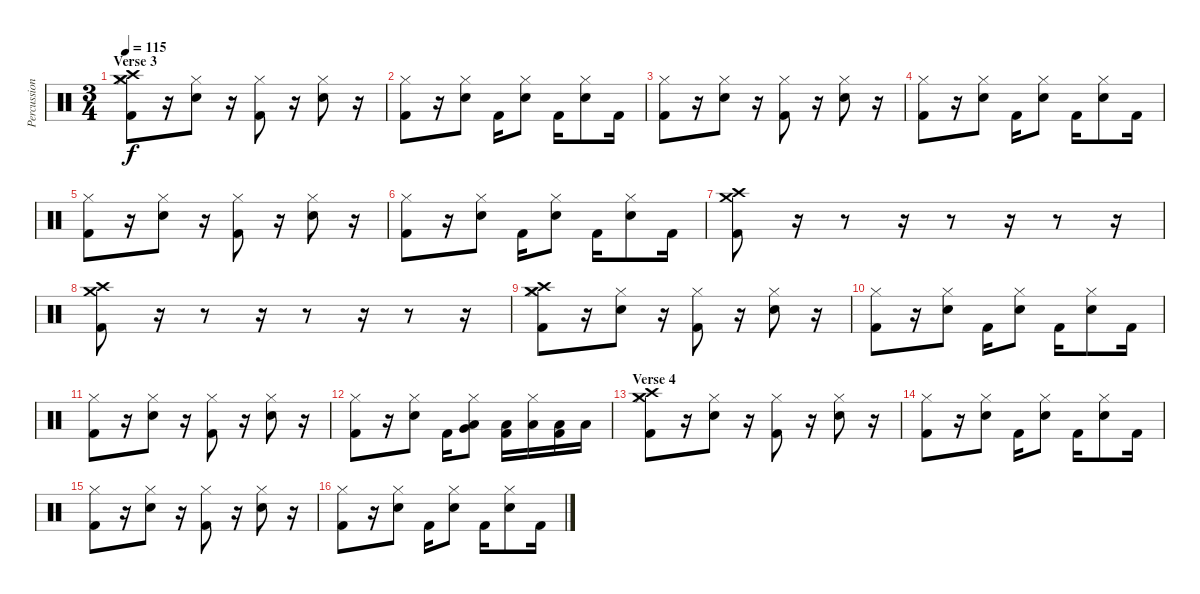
\track ("Percussion" "Percussion") {instrument percussion}
\staff {score}
\articulation defaults
\ts (3 4)
\section ("" "Verse 3")
\tempo 115
\clef neutral
\ks c
("Hi-Hat (closed)" "Crash high (hit)" "Crash medium (hit)" "Kick (hit) 2").8{dy f} r.16 ("Hi-Hat (closed)" "Snare (hit) 2").8 r.16 ("Hi-Hat (closed)" "Kick (hit) 2").8 r.16 ("Hi-Hat (closed)" "Snare (hit) 2").8 r.16 |
("Hi-Hat (closed)" "Kick (hit) 2").8 r.16 ("Hi-Hat (closed)" "Snare (hit) 2").8 "Kick (hit) 2".16 ("Hi-Hat (closed)" "Snare (hit) 2").8 "Kick (hit) 2".16 ("Hi-Hat (closed)" "Snare (hit) 2").8 "Kick (hit) 2".16 |
("Hi-Hat (closed)" "Kick (hit) 2").8 r.16 ("Hi-Hat (closed)" "Snare (hit) 2").8 r.16 ("Hi-Hat (closed)" "Kick (hit) 2").8 r.16 ("Hi-Hat (closed)" "Snare (hit) 2").8 r.16 |
("Hi-Hat (closed)" "Kick (hit) 2").8 r.16 ("Hi-Hat (closed)" "Snare (hit) 2").8 "Kick (hit) 2".16 ("Hi-Hat (closed)" "Snare (hit) 2").8 "Kick (hit) 2".16 ("Hi-Hat (closed)" "Snare (hit) 2").8 "Kick (hit) 2".16 |
("Hi-Hat (closed)" "Kick (hit) 2").8 r.16 ("Hi-Hat (closed)" "Snare (hit) 2").8 r.16 ("Hi-Hat (closed)" "Kick (hit) 2").8 r.16 ("Hi-Hat (closed)" "Snare (hit) 2").8 r.16 |
("Hi-Hat (closed)" "Kick (hit) 2").8 r.16 ("Hi-Hat (closed)" "Snare (hit) 2").8 "Kick (hit) 2".16 ("Hi-Hat (closed)" "Snare (hit) 2").8 "Kick (hit) 2".16 ("Hi-Hat (closed)" "Snare (hit) 2").8 "Kick (hit) 2".16 |
("Crash medium (hit)" "Crash high (hit)" "Kick (hit) 2").8 r.16 r.8 r.16 r.8 r.16 r.8 r.16 |
("Crash medium (hit)" "Crash high (hit)" "Kick (hit) 2").8 r.16 r.8 r.16 r.8 r.16 r.8 r.16 |
("Hi-Hat (closed)" "Crash medium (hit)" "Crash high (hit)" "Kick (hit) 2").8 r.16 ("Hi-Hat (closed)" "Snare (hit) 2").8 r.16 ("Hi-Hat (closed)" "Kick (hit) 2").8 r.16 ("Hi-Hat (closed)" "Snare (hit) 2").8 r.16 |
("Hi-Hat (closed)" "Kick (hit) 2").8 r.16 ("Hi-Hat (closed)" "Snare (hit) 2").8 "Kick (hit) 2".16 ("Hi-Hat (closed)" "Snare (hit) 2").8 "Kick (hit) 2".16 ("Hi-Hat (closed)" "Snare (hit) 2").8 "Kick (hit) 2".16 |
("Hi-Hat (closed)" "Kick (hit) 2").8 r.16 ("Hi-Hat (closed)" "Snare (hit) 2").8 r.16 ("Hi-Hat (closed)" "Kick (hit) 2").8 r.16 ("Hi-Hat (closed)" "Snare (hit) 2").8 r.16 |
("Hi-Hat (closed)" "Kick (hit) 2").8 r.16 ("Hi-Hat (closed)" "Snare (hit) 2").8 "Kick (hit) 2".16 ("Hi-Hat (closed)" "Very Low Tom (hit)" "Low Tom (hit)").8 ("Low Tom (hit)" "Kick (hit) 2").16 ("Hi-Hat (closed)" "Low Tom (hit)").16 ("Low Tom (hit)" "Kick (hit) 2").16 "Low Tom (hit)".16 |
\section ("" "Verse 4")
("Hi-Hat (closed)" "Crash high (hit)" "Crash medium (hit)" "Kick (hit) 2").8 r.16 ("Hi-Hat (closed)" "Snare (hit) 2").8 r.16 ("Hi-Hat (closed)" "Kick (hit) 2").8 r.16 ("Hi-Hat (closed)" "Snare (hit) 2").8 r.16 |
("Hi-Hat (closed)" "Kick (hit) 2").8 r.16 ("Hi-Hat (closed)" "Snare (hit) 2").8 "Kick (hit) 2".16 ("Hi-Hat (closed)" "Snare (hit) 2").8 "Kick (hit) 2".16 ("Hi-Hat (closed)" "Snare (hit) 2").8 "Kick (hit) 2".16 |
("Hi-Hat (closed)" "Kick (hit) 2").8 r.16 ("Hi-Hat (closed)" "Snare (hit) 2").8 r.16 ("Hi-Hat (closed)" "Kick (hit) 2").8 r.16 ("Hi-Hat (closed)" "Snare (hit) 2").8 r.16 |
("Hi-Hat (closed)" "Kick (hit) 2").8 r.16 ("Hi-Hat (closed)" "Snare (hit) 2").8 "Kick (hit) 2".16 ("Hi-Hat (closed)" "Snare (hit) 2").8 "Kick (hit) 2".16 ("Hi-Hat (closed)" "Snare (hit) 2").8 "Kick (hit) 2".16
